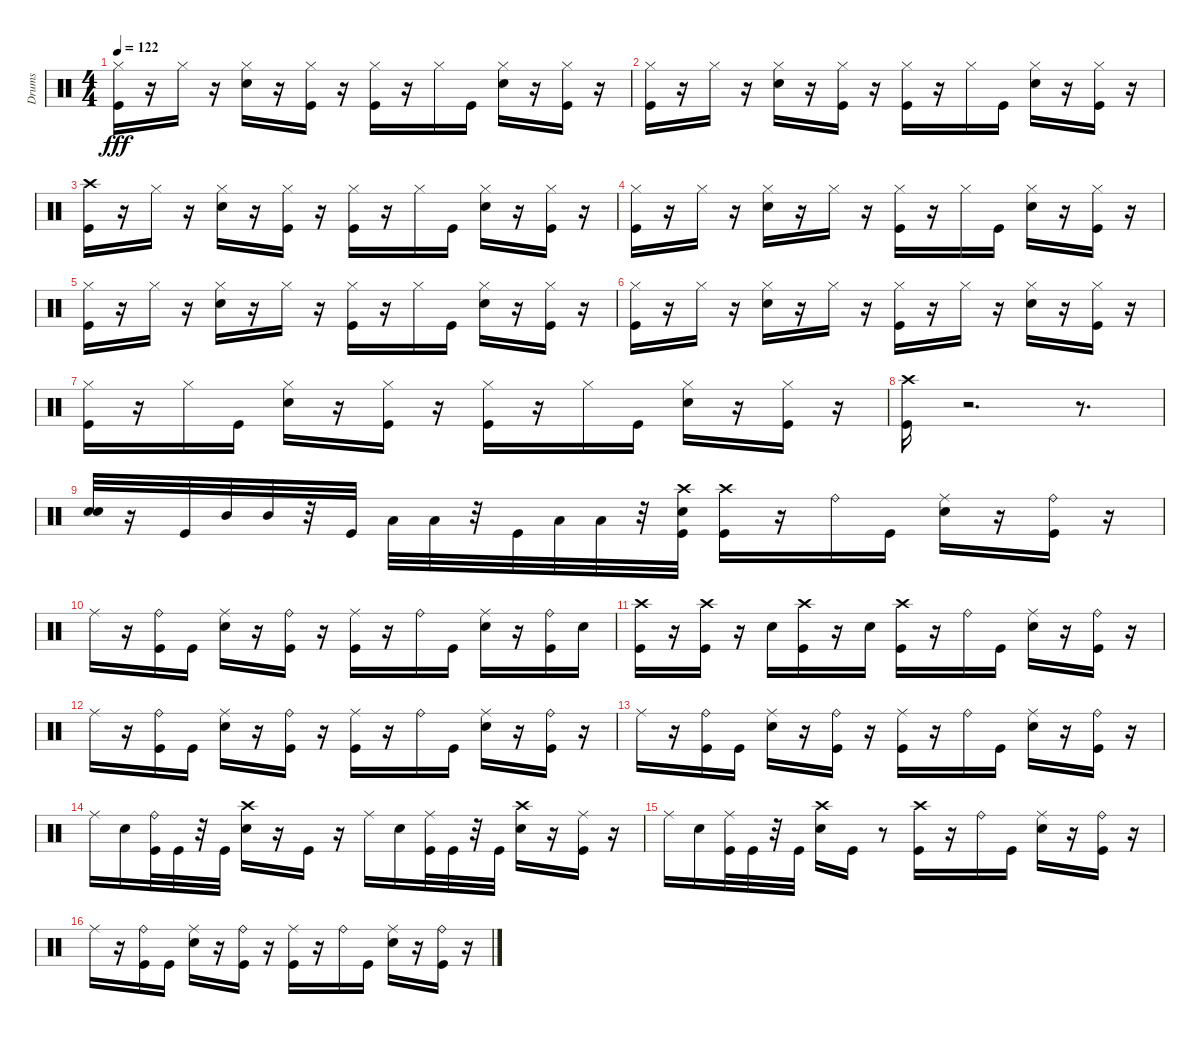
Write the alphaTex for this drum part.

\track ("Drums" "Drums") {instrument percussion}
\staff {score}
\articulation defaults
\ts (4 4)
\tempo 122
\clef neutral
\ks c
("Kick (hit)" "Hi-Hat (closed)").16{dy fff} r.16 "Hi-Hat (closed)".16 r.16 ("Snare (hit) 2" "Hi-Hat (closed)").16 r.16 ("Kick (hit)" "Hi-Hat (closed)").16 r.16 ("Kick (hit)" "Hi-Hat (closed)").16 r.16 "Hi-Hat (closed)".16 "Kick (hit)".16 ("Snare (hit) 2" "Hi-Hat (closed)").16 r.16 ("Kick (hit)" "Hi-Hat (closed)").16 r.16 |
("Kick (hit)" "Hi-Hat (closed)").16 r.16 "Hi-Hat (closed)".16 r.16 ("Snare (hit) 2" "Hi-Hat (closed)").16 r.16 ("Kick (hit)" "Hi-Hat (closed)").16 r.16 ("Kick (hit)" "Hi-Hat (closed)").16 r.16 "Hi-Hat (closed)".16 "Kick (hit)".16 ("Snare (hit) 2" "Hi-Hat (closed)").16 r.16 ("Kick (hit)" "Hi-Hat (closed)").16 r.16 |
("Crash high (hit)" "Kick (hit)").16 r.16 "Hi-Hat (closed)".16 r.16 ("Hi-Hat (closed)" "Snare (hit) 2").16 r.16 ("Hi-Hat (closed)" "Kick (hit)").16 r.16 ("Hi-Hat (closed)" "Kick (hit)").16 r.16 "Hi-Hat (closed)".16 "Kick (hit)".16 ("Hi-Hat (closed)" "Snare (hit) 2").16 r.16 ("Hi-Hat (closed)" "Kick (hit)").16 r.16 |
("Kick (hit)" "Hi-Hat (closed)").16 r.16 "Hi-Hat (closed)".16 r.16 ("Snare (hit) 2" "Hi-Hat (closed)").16 r.16 "Hi-Hat (closed)".16 r.16 ("Kick (hit)" "Hi-Hat (closed)").16 r.16 "Hi-Hat (closed)".16 "Kick (hit)".16 ("Snare (hit) 2" "Hi-Hat (closed)").16 r.16 ("Kick (hit)" "Hi-Hat (closed)").16 r.16 |
("Kick (hit)" "Hi-Hat (closed)").16 r.16 "Hi-Hat (closed)".16 r.16 ("Snare (hit) 2" "Hi-Hat (closed)").16 r.16 "Hi-Hat (closed)".16 r.16 ("Kick (hit)" "Hi-Hat (closed)").16 r.16 "Hi-Hat (closed)".16 "Kick (hit)".16 ("Snare (hit) 2" "Hi-Hat (closed)").16 r.16 ("Kick (hit)" "Hi-Hat (closed)").16 r.16 |
("Kick (hit)" "Hi-Hat (closed)").16 r.16 "Hi-Hat (closed)".16 r.16 ("Snare (hit) 2" "Hi-Hat (closed)").16 r.16 "Hi-Hat (closed)".16 r.16 ("Kick (hit)" "Hi-Hat (closed)").16 r.16 "Hi-Hat (closed)".16 r.16 ("Snare (hit) 2" "Hi-Hat (closed)").16 r.16 ("Kick (hit)" "Hi-Hat (closed)").16 r.16 |
("Hi-Hat (closed)" "Kick (hit)").16 r.16 "Hi-Hat (closed)".16 "Kick (hit)".16 ("Hi-Hat (closed)" "Snare (hit) 2").16 r.16 ("Hi-Hat (closed)" "Kick (hit)").16 r.16 ("Hi-Hat (closed)" "Kick (hit)").16 r.16 "Hi-Hat (closed)".16 "Kick (hit)".16 ("Hi-Hat (closed)" "Snare (hit) 2").16 r.16 ("Hi-Hat (closed)" "Kick (hit)").16 r.16 |
("Crash high (hit)" "Kick (hit)").16 r.2{d} r.8{d} |
("Electric Snare (hit)" "Snare (hit) 2").32 r.16 "Kick (hit)".32 "Mid Tom (hit)".32 "Mid Tom (hit)".32 r.32 "Kick (hit)".32 "Low Tom (hit)".32 "Low Tom (hit)".32 r.32 "Kick (hit)".32 "Low Tom (hit)".32 "Low Tom (hit)".32 r.32 ("Crash high (hit)" "Snare (hit) 2" "Kick (hit)").32 ("Crash high (hit)" "Kick (hit)").16 r.16 "Ride (bell)".16 "Kick (hit)".16 ("Snare (hit) 2" "Ride (middle)").16 r.16 ("Kick (hit)" "Ride (bell)").16 r.16 |
"Ride (middle)".16 r.16 ("Kick (hit)" "Ride (bell)").16 "Kick (hit)".16 ("Snare (hit) 2" "Ride (middle)").16 r.16 ("Kick (hit)" "Ride (bell)").16 r.16 ("Kick (hit)" "Ride (middle)").16 r.16 "Ride (bell)".16 "Kick (hit)".16 ("Snare (hit) 2" "Ride (middle)").16 r.16 ("Kick (hit)" "Ride (bell)").16 "Snare (hit) 2".16 |
("Kick (hit)" "Crash high (hit)").16 r.16 ("Kick (hit)" "Crash high (hit)").16 r.16 "Snare (hit) 2".16 ("Kick (hit)" "Crash high (hit)").16 r.16 "Snare (hit) 2".16 ("Kick (hit)" "Crash high (hit)").16 r.16 "Ride (bell)".16 "Kick (hit)".16 ("Ride (middle)" "Snare (hit) 2").16 r.16 ("Ride (bell)" "Kick (hit)").16 r.16 |
"Ride (middle)".16 r.16 ("Ride (bell)" "Kick (hit)").16 "Kick (hit)".16 ("Ride (middle)" "Snare (hit) 2").16 r.16 ("Ride (bell)" "Kick (hit)").16 r.16 ("Kick (hit)" "Ride (middle)").16 r.16 "Ride (bell)".16 "Kick (hit)".16 ("Snare (hit) 2" "Ride (middle)").16 r.16 ("Kick (hit)" "Ride (bell)").16 r.16 |
"Ride (middle)".16 r.16 ("Kick (hit)" "Ride (bell)").16 "Kick (hit)".16 ("Snare (hit) 2" "Ride (middle)").16 r.16 ("Kick (hit)" "Ride (bell)").16 r.16 ("Ride (middle)" "Kick (hit)").16 r.16 "Ride (bell)".16 "Kick (hit)".16 ("Ride (middle)" "Snare (hit) 2").16 r.16 ("Ride (bell)" "Kick (hit)").16 r.16 |
"Ride (middle)".16 "Snare (hit) 2".16 ("Ride (bell)" "Kick (hit)").32 "Kick (hit)".32 r.32 "Kick (hit)".32 ("Snare (hit) 2" "Crash high (hit)").16 r.16 "Kick (hit)".16 r.16 "Ride (middle)".16 "Snare (hit) 2".16 ("Ride (middle)" "Kick (hit)").32 "Kick (hit)".32 r.32 "Kick (hit)".32 ("Snare (hit) 2" "Crash high (hit)").16 r.16 ("Ride (middle)" "Kick (hit)").16 r.16 |
"Ride (middle)".16 "Snare (hit) 2".16 ("Ride (middle)" "Kick (hit)").32 "Kick (hit)".32 r.32 "Kick (hit)".32 ("Snare (hit) 2" "Crash high (hit)").16 "Kick (hit)".16 r.8 ("Crash high (hit)" "Kick (hit)").16 r.16 "Ride (bell)".16 "Kick (hit)".16 ("Snare (hit) 2" "Ride (middle)").16 r.16 ("Kick (hit)" "Ride (bell)").16 r.16 |
"Ride (middle)".16 r.16 ("Kick (hit)" "Ride (bell)").16 "Kick (hit)".16 ("Snare (hit) 2" "Ride (middle)").16 r.16 ("Kick (hit)" "Ride (bell)").16 r.16 ("Ride (middle)" "Kick (hit)").16 r.16 "Ride (bell)".16 "Kick (hit)".16 ("Ride (middle)" "Snare (hit) 2").16 r.16 ("Ride (bell)" "Kick (hit)").16 r.16
